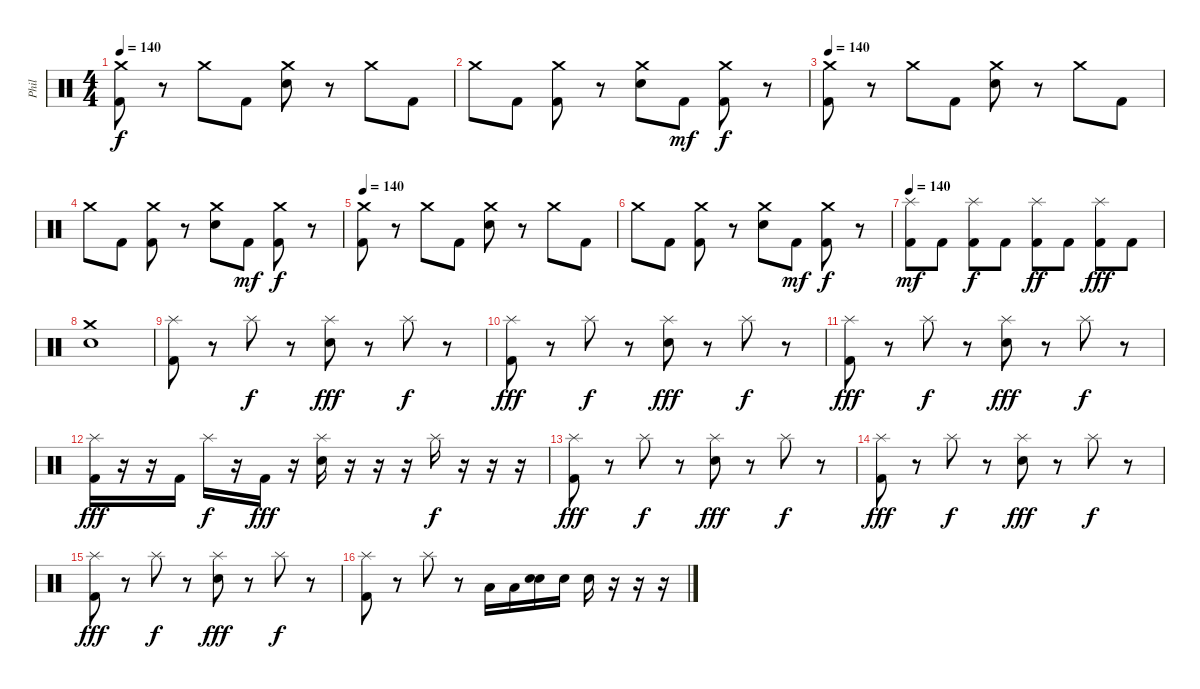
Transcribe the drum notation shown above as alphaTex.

\track ("Phil" "Phil") {instrument percussion}
\staff {score}
\articulation defaults
\ts (4 4)
\tempo 140
\clef neutral
\ks c
("Crash medium (hit)" "Kick (hit) 2").8{dy f} r.8 "Crash medium (hit)".8 "Kick (hit) 2".8 ("Crash medium (hit)" "Snare (hit) 2").8 r.8 "Crash medium (hit)".8 "Kick (hit) 2".8 |
"Crash medium (hit)".8 "Kick (hit) 2".8 ("Crash medium (hit)" "Kick (hit) 2").8 r.8 ("Crash medium (hit)" "Snare (hit) 2").8 "Kick (hit) 2".8{dy mf} ("Crash medium (hit)" "Kick (hit) 2").8{dy f} r.8 |
\tempo 140
("Crash medium (hit)" "Kick (hit) 2").8 r.8 "Crash medium (hit)".8 "Kick (hit) 2".8 ("Crash medium (hit)" "Snare (hit) 2").8 r.8 "Crash medium (hit)".8 "Kick (hit) 2".8 |
"Crash medium (hit)".8 "Kick (hit) 2".8 ("Crash medium (hit)" "Kick (hit) 2").8 r.8 ("Crash medium (hit)" "Snare (hit) 2").8 "Kick (hit) 2".8{dy mf} ("Crash medium (hit)" "Kick (hit) 2").8{dy f} r.8 |
\tempo 140
("Crash medium (hit)" "Kick (hit) 2").8 r.8 "Crash medium (hit)".8 "Kick (hit) 2".8 ("Crash medium (hit)" "Snare (hit) 2").8 r.8 "Crash medium (hit)".8 "Kick (hit) 2".8 |
"Crash medium (hit)".8 "Kick (hit) 2".8 ("Crash medium (hit)" "Kick (hit) 2").8 r.8 ("Crash medium (hit)" "Snare (hit) 2").8 "Kick (hit) 2".8{dy mf} ("Crash medium (hit)" "Kick (hit) 2").8{dy f} r.8 |
\tempo 140
("Splash (hit)" "Kick (hit) 2").8{dy mf} "Kick (hit) 2".8 ("Splash (hit)" "Kick (hit) 2").8{dy f} "Kick (hit) 2".8 ("Splash (hit)" "Kick (hit) 2").8{dy ff} "Kick (hit) 2".8 ("Splash (hit)" "Kick (hit) 2").8{dy fff} "Kick (hit) 2".8 |
("Crash medium (hit)" "Snare (hit) 2").1 |
("Splash (hit)" "Kick (hit) 2").8 r.8 "Splash (hit)".8{dy f} r.8 ("Splash (hit)" "Snare (hit) 2").8{dy fff} r.8 "Splash (hit)".8{dy f} r.8 |
("Splash (hit)" "Kick (hit) 2").8{dy fff} r.8 "Splash (hit)".8{dy f} r.8 ("Splash (hit)" "Snare (hit) 2").8{dy fff} r.8 "Splash (hit)".8{dy f} r.8 |
("Splash (hit)" "Kick (hit) 2").8{dy fff} r.8 "Splash (hit)".8{dy f} r.8 ("Splash (hit)" "Snare (hit) 2").8{dy fff} r.8 "Splash (hit)".8{dy f} r.8 |
("Splash (hit)" "Kick (hit) 2").16{dy fff} r.16 r.16 "Kick (hit) 2".16 "Splash (hit)".16{dy f} r.16 "Kick (hit) 2".16{dy fff} r.16 ("Splash (hit)" "Snare (hit) 2").16 r.16 r.16 r.16 "Splash (hit)".16{dy f} r.16 r.16 r.16 |
("Splash (hit)" "Kick (hit) 2").8{dy fff} r.8 "Splash (hit)".8{dy f} r.8 ("Splash (hit)" "Snare (hit) 2").8{dy fff} r.8 "Splash (hit)".8{dy f} r.8 |
("Splash (hit)" "Kick (hit) 2").8{dy fff} r.8 "Splash (hit)".8{dy f} r.8 ("Splash (hit)" "Snare (hit) 2").8{dy fff} r.8 "Splash (hit)".8{dy f} r.8 |
("Splash (hit)" "Kick (hit) 2").8{dy fff} r.8 "Splash (hit)".8{dy f} r.8 ("Splash (hit)" "Snare (hit) 2").8{dy fff} r.8 "Splash (hit)".8{dy f} r.8 |
("Splash (hit)" "Kick (hit) 2").8 r.8 "Splash (hit)".8 r.8 "Low Floor Tom (hit)".16 "Low Floor Tom (hit)".16 ("Snare (hit) 2" "Electric Snare (hit)").16 "Snare (hit) 2".16 "Snare (hit) 2".16 r.16 r.16 r.16
